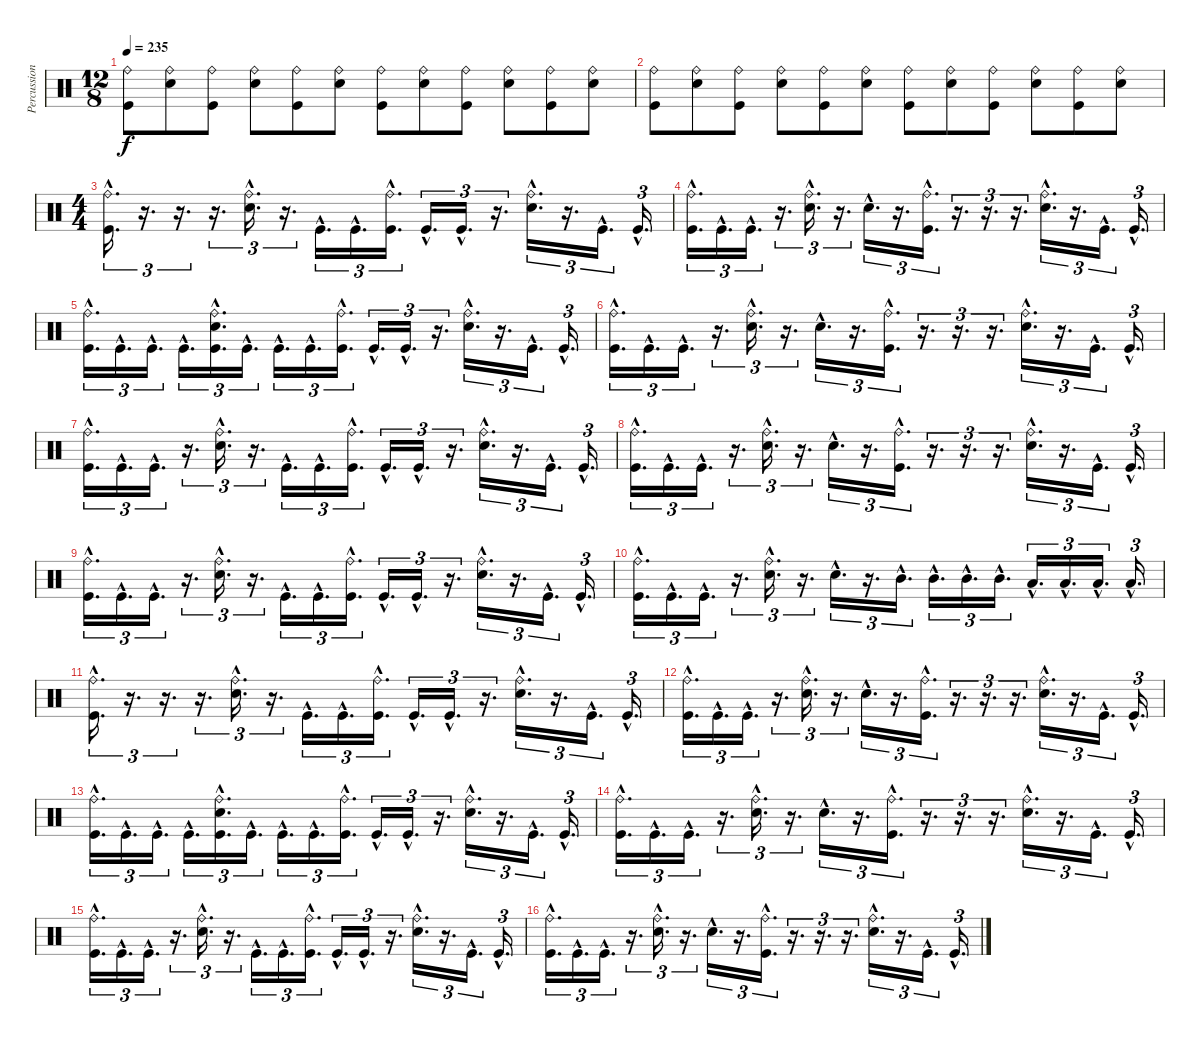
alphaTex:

\track ("Percussion" "Percussion") {instrument percussion}
\staff {score}
\articulation defaults
\ts (12 8)
\tempo 235
\clef neutral
\ks c
("Ride (bell)" "Kick (hit)").8{dy f} ("Ride (bell)" "Snare (hit) 2").8 ("Ride (bell)" "Kick (hit)").8 ("Ride (bell)" "Snare (hit) 2").8 ("Ride (bell)" "Kick (hit)").8 ("Ride (bell)" "Snare (hit) 2").8 ("Ride (bell)" "Kick (hit)").8 ("Ride (bell)" "Snare (hit) 2").8 ("Ride (bell)" "Kick (hit)").8 ("Ride (bell)" "Snare (hit) 2").8 ("Ride (bell)" "Kick (hit)").8 ("Ride (bell)" "Snare (hit) 2").8 |
("Ride (bell)" "Kick (hit)").8 ("Ride (bell)" "Snare (hit) 2").8 ("Ride (bell)" "Kick (hit)").8 ("Ride (bell)" "Snare (hit) 2").8 ("Ride (bell)" "Kick (hit)").8 ("Ride (bell)" "Snare (hit) 2").8 ("Ride (bell)" "Kick (hit)").8 ("Ride (bell)" "Snare (hit) 2").8 ("Ride (bell)" "Kick (hit)").8 ("Ride (bell)" "Snare (hit) 2").8 ("Ride (bell)" "Kick (hit)").8 ("Ride (bell)" "Snare (hit) 2").8 |
\ts (4 4)
("Ride (bell)"{hac} "Kick (hit)"{hac}).16{d tu (3 2)} r.16{d tu (3 2)} r.16{d tu (3 2)} r.16{d tu (3 2)} ("Ride (bell)"{hac} "Snare (hit) 2"{hac}).16{d tu (3 2)} r.16{d tu (3 2)} "Kick (hit)"{hac}.16{d tu (3 2)} "Kick (hit)"{hac}.16{d tu (3 2)} ("Ride (bell)"{hac} "Kick (hit)"{hac}).16{d tu (3 2)} "Kick (hit)"{hac}.16{d tu (3 2)} "Kick (hit)"{hac}.16{d tu (3 2)} r.16{d tu (3 2)} ("Ride (bell)"{hac} "Snare (hit) 2"{hac}).16{d tu (3 2)} r.16{d tu (3 2)} "Kick (hit)"{hac}.16{d tu (3 2)} "Kick (hit)"{hac}.16{d tu (3 2)} |
("Ride (bell)"{hac} "Kick (hit)"{hac}).16{d tu (3 2)} "Kick (hit)"{hac}.16{d tu (3 2)} "Kick (hit)"{hac}.16{d tu (3 2)} r.16{d tu (3 2)} ("Ride (bell)"{hac} "Snare (hit) 2"{hac}).16{d tu (3 2)} r.16{d tu (3 2)} "Snare (hit) 2"{hac}.16{d tu (3 2)} r.16{d tu (3 2)} ("Ride (bell)"{hac} "Kick (hit)"{hac}).16{d tu (3 2)} r.16{d tu (3 2)} r.16{d tu (3 2)} r.16{d tu (3 2)} ("Ride (bell)"{hac} "Snare (hit) 2"{hac}).16{d tu (3 2)} r.16{d tu (3 2)} "Kick (hit)"{hac}.16{d tu (3 2)} "Kick (hit)"{hac}.16{d tu (3 2)} |
("Ride (bell)"{hac} "Kick (hit)"{hac}).16{d tu (3 2)} "Kick (hit)"{hac}.16{d tu (3 2)} "Kick (hit)"{hac}.16{d tu (3 2)} "Kick (hit)"{hac}.16{d tu (3 2)} ("Ride (bell)"{hac} "Snare (hit) 2"{hac} "Kick (hit)"{hac}).16{d tu (3 2)} "Kick (hit)"{hac}.16{d tu (3 2)} "Kick (hit)"{hac}.16{d tu (3 2)} "Kick (hit)"{hac}.16{d tu (3 2)} ("Ride (bell)"{hac} "Kick (hit)"{hac}).16{d tu (3 2)} "Kick (hit)"{hac}.16{d tu (3 2)} "Kick (hit)"{hac}.16{d tu (3 2)} r.16{d tu (3 2)} ("Ride (bell)"{hac} "Snare (hit) 2"{hac}).16{d tu (3 2)} r.16{d tu (3 2)} "Kick (hit)"{hac}.16{d tu (3 2)} "Kick (hit)"{hac}.16{d tu (3 2)} |
("Ride (bell)"{hac} "Kick (hit)"{hac}).16{d tu (3 2)} "Kick (hit)"{hac}.16{d tu (3 2)} "Kick (hit)"{hac}.16{d tu (3 2)} r.16{d tu (3 2)} ("Ride (bell)"{hac} "Snare (hit) 2"{hac}).16{d tu (3 2)} r.16{d tu (3 2)} "Snare (hit) 2"{hac}.16{d tu (3 2)} r.16{d tu (3 2)} ("Ride (bell)"{hac} "Kick (hit)"{hac}).16{d tu (3 2)} r.16{d tu (3 2)} r.16{d tu (3 2)} r.16{d tu (3 2)} ("Ride (bell)"{hac} "Snare (hit) 2"{hac}).16{d tu (3 2)} r.16{d tu (3 2)} "Kick (hit)"{hac}.16{d tu (3 2)} "Kick (hit)"{hac}.16{d tu (3 2)} |
("Ride (bell)"{hac} "Kick (hit)"{hac}).16{d tu (3 2)} "Kick (hit)"{hac}.16{d tu (3 2)} "Kick (hit)"{hac}.16{d tu (3 2)} r.16{d tu (3 2)} ("Ride (bell)"{hac} "Snare (hit) 2"{hac}).16{d tu (3 2)} r.16{d tu (3 2)} "Kick (hit)"{hac}.16{d tu (3 2)} "Kick (hit)"{hac}.16{d tu (3 2)} ("Ride (bell)"{hac} "Kick (hit)"{hac}).16{d tu (3 2)} "Kick (hit)"{hac}.16{d tu (3 2)} "Kick (hit)"{hac}.16{d tu (3 2)} r.16{d tu (3 2)} ("Ride (bell)"{hac} "Snare (hit) 2"{hac}).16{d tu (3 2)} r.16{d tu (3 2)} "Kick (hit)"{hac}.16{d tu (3 2)} "Kick (hit)"{hac}.16{d tu (3 2)} |
("Ride (bell)"{hac} "Kick (hit)"{hac}).16{d tu (3 2)} "Kick (hit)"{hac}.16{d tu (3 2)} "Kick (hit)"{hac}.16{d tu (3 2)} r.16{d tu (3 2)} ("Ride (bell)"{hac} "Snare (hit) 2"{hac}).16{d tu (3 2)} r.16{d tu (3 2)} "Snare (hit) 2"{hac}.16{d tu (3 2)} r.16{d tu (3 2)} ("Ride (bell)"{hac} "Kick (hit)"{hac}).16{d tu (3 2)} r.16{d tu (3 2)} r.16{d tu (3 2)} r.16{d tu (3 2)} ("Ride (bell)"{hac} "Snare (hit) 2"{hac}).16{d tu (3 2)} r.16{d tu (3 2)} "Kick (hit)"{hac}.16{d tu (3 2)} "Kick (hit)"{hac}.16{d tu (3 2)} |
("Ride (bell)"{hac} "Kick (hit)"{hac}).16{d tu (3 2)} "Kick (hit)"{hac}.16{d tu (3 2)} "Kick (hit)"{hac}.16{d tu (3 2)} r.16{d tu (3 2)} ("Ride (bell)"{hac} "Snare (hit) 2"{hac}).16{d tu (3 2)} r.16{d tu (3 2)} "Kick (hit)"{hac}.16{d tu (3 2)} "Kick (hit)"{hac}.16{d tu (3 2)} ("Ride (bell)"{hac} "Kick (hit)"{hac}).16{d tu (3 2)} "Kick (hit)"{hac}.16{d tu (3 2)} "Kick (hit)"{hac}.16{d tu (3 2)} r.16{d tu (3 2)} ("Ride (bell)"{hac} "Snare (hit) 2"{hac}).16{d tu (3 2)} r.16{d tu (3 2)} "Kick (hit)"{hac}.16{d tu (3 2)} "Kick (hit)"{hac}.16{d tu (3 2)} |
("Ride (bell)"{hac} "Kick (hit)"{hac}).16{d tu (3 2)} "Kick (hit)"{hac}.16{d tu (3 2)} "Kick (hit)"{hac}.16{d tu (3 2)} r.16{d tu (3 2)} ("Ride (bell)"{hac} "Snare (hit) 2"{hac}).16{d tu (3 2)} r.16{d tu (3 2)} "Snare (hit) 2"{hac}.16{d tu (3 2)} r.16{d tu (3 2)} "Mid Tom (hit)"{hac}.16{d tu (3 2)} "Mid Tom (hit)"{hac}.16{d tu (3 2)} "Mid Tom (hit)"{hac}.16{d tu (3 2)} "Mid Tom (hit)"{hac}.16{d tu (3 2)} "Low Tom (hit)"{hac}.16{d tu (3 2)} "Low Tom (hit)"{hac}.16{d tu (3 2)} "Low Tom (hit)"{hac}.16{d tu (3 2)} "Low Tom (hit)"{hac}.16{d tu (3 2)} |
("Ride (bell)"{hac} "Kick (hit)"{hac}).16{d tu (3 2)} r.16{d tu (3 2)} r.16{d tu (3 2)} r.16{d tu (3 2)} ("Ride (bell)"{hac} "Snare (hit) 2"{hac}).16{d tu (3 2)} r.16{d tu (3 2)} "Kick (hit)"{hac}.16{d tu (3 2)} "Kick (hit)"{hac}.16{d tu (3 2)} ("Ride (bell)"{hac} "Kick (hit)"{hac}).16{d tu (3 2)} "Kick (hit)"{hac}.16{d tu (3 2)} "Kick (hit)"{hac}.16{d tu (3 2)} r.16{d tu (3 2)} ("Ride (bell)"{hac} "Snare (hit) 2"{hac}).16{d tu (3 2)} r.16{d tu (3 2)} "Kick (hit)"{hac}.16{d tu (3 2)} "Kick (hit)"{hac}.16{d tu (3 2)} |
("Ride (bell)"{hac} "Kick (hit)"{hac}).16{d tu (3 2)} "Kick (hit)"{hac}.16{d tu (3 2)} "Kick (hit)"{hac}.16{d tu (3 2)} r.16{d tu (3 2)} ("Ride (bell)"{hac} "Snare (hit) 2"{hac}).16{d tu (3 2)} r.16{d tu (3 2)} "Snare (hit) 2"{hac}.16{d tu (3 2)} r.16{d tu (3 2)} ("Ride (bell)"{hac} "Kick (hit)"{hac}).16{d tu (3 2)} r.16{d tu (3 2)} r.16{d tu (3 2)} r.16{d tu (3 2)} ("Ride (bell)"{hac} "Snare (hit) 2"{hac}).16{d tu (3 2)} r.16{d tu (3 2)} "Kick (hit)"{hac}.16{d tu (3 2)} "Kick (hit)"{hac}.16{d tu (3 2)} |
("Ride (bell)"{hac} "Kick (hit)"{hac}).16{d tu (3 2)} "Kick (hit)"{hac}.16{d tu (3 2)} "Kick (hit)"{hac}.16{d tu (3 2)} "Kick (hit)"{hac}.16{d tu (3 2)} ("Ride (bell)"{hac} "Snare (hit) 2"{hac} "Kick (hit)"{hac}).16{d tu (3 2)} "Kick (hit)"{hac}.16{d tu (3 2)} "Kick (hit)"{hac}.16{d tu (3 2)} "Kick (hit)"{hac}.16{d tu (3 2)} ("Ride (bell)"{hac} "Kick (hit)"{hac}).16{d tu (3 2)} "Kick (hit)"{hac}.16{d tu (3 2)} "Kick (hit)"{hac}.16{d tu (3 2)} r.16{d tu (3 2)} ("Ride (bell)"{hac} "Snare (hit) 2"{hac}).16{d tu (3 2)} r.16{d tu (3 2)} "Kick (hit)"{hac}.16{d tu (3 2)} "Kick (hit)"{hac}.16{d tu (3 2)} |
("Ride (bell)"{hac} "Kick (hit)"{hac}).16{d tu (3 2)} "Kick (hit)"{hac}.16{d tu (3 2)} "Kick (hit)"{hac}.16{d tu (3 2)} r.16{d tu (3 2)} ("Ride (bell)"{hac} "Snare (hit) 2"{hac}).16{d tu (3 2)} r.16{d tu (3 2)} "Snare (hit) 2"{hac}.16{d tu (3 2)} r.16{d tu (3 2)} ("Ride (bell)"{hac} "Kick (hit)"{hac}).16{d tu (3 2)} r.16{d tu (3 2)} r.16{d tu (3 2)} r.16{d tu (3 2)} ("Ride (bell)"{hac} "Snare (hit) 2"{hac}).16{d tu (3 2)} r.16{d tu (3 2)} "Kick (hit)"{hac}.16{d tu (3 2)} "Kick (hit)"{hac}.16{d tu (3 2)} |
("Ride (bell)"{hac} "Kick (hit)"{hac}).16{d tu (3 2)} "Kick (hit)"{hac}.16{d tu (3 2)} "Kick (hit)"{hac}.16{d tu (3 2)} r.16{d tu (3 2)} ("Ride (bell)"{hac} "Snare (hit) 2"{hac}).16{d tu (3 2)} r.16{d tu (3 2)} "Kick (hit)"{hac}.16{d tu (3 2)} "Kick (hit)"{hac}.16{d tu (3 2)} ("Ride (bell)"{hac} "Kick (hit)"{hac}).16{d tu (3 2)} "Kick (hit)"{hac}.16{d tu (3 2)} "Kick (hit)"{hac}.16{d tu (3 2)} r.16{d tu (3 2)} ("Ride (bell)"{hac} "Snare (hit) 2"{hac}).16{d tu (3 2)} r.16{d tu (3 2)} "Kick (hit)"{hac}.16{d tu (3 2)} "Kick (hit)"{hac}.16{d tu (3 2)} |
("Ride (bell)"{hac} "Kick (hit)"{hac}).16{d tu (3 2)} "Kick (hit)"{hac}.16{d tu (3 2)} "Kick (hit)"{hac}.16{d tu (3 2)} r.16{d tu (3 2)} ("Ride (bell)"{hac} "Snare (hit) 2"{hac}).16{d tu (3 2)} r.16{d tu (3 2)} "Snare (hit) 2"{hac}.16{d tu (3 2)} r.16{d tu (3 2)} ("Ride (bell)"{hac} "Kick (hit)"{hac}).16{d tu (3 2)} r.16{d tu (3 2)} r.16{d tu (3 2)} r.16{d tu (3 2)} ("Ride (bell)"{hac} "Snare (hit) 2"{hac}).16{d tu (3 2)} r.16{d tu (3 2)} "Kick (hit)"{hac}.16{d tu (3 2)} "Kick (hit)"{hac}.16{d tu (3 2)}
